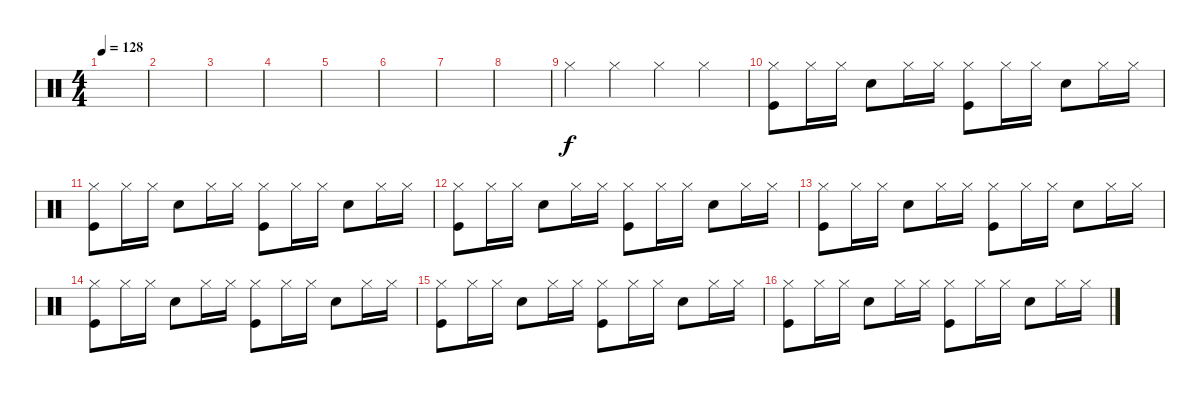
\track "" {instrument percussion}
\staff {score}
\articulation defaults
\ts (4 4)
\tempo 128
\clef neutral
\ks c
|
|
|
|
|
|
|
|
"Hi-Hat (closed)".4{dy f} "Hi-Hat (closed)".4 "Hi-Hat (closed)".4 "Hi-Hat (closed)".4 |
("Hi-Hat (closed)" "Kick (hit)").8 "Hi-Hat (closed)".16 "Hi-Hat (closed)".16 "Electric Snare (hit)".8 "Hi-Hat (closed)".16 "Hi-Hat (closed)".16 ("Hi-Hat (closed)" "Kick (hit)").8 "Hi-Hat (closed)".16 "Hi-Hat (closed)".16 "Electric Snare (hit)".8 "Hi-Hat (closed)".16 "Hi-Hat (closed)".16 |
("Hi-Hat (closed)" "Kick (hit)").8 "Hi-Hat (closed)".16 "Hi-Hat (closed)".16 "Electric Snare (hit)".8 "Hi-Hat (closed)".16 "Hi-Hat (closed)".16 ("Hi-Hat (closed)" "Kick (hit)").8 "Hi-Hat (closed)".16 "Hi-Hat (closed)".16 "Electric Snare (hit)".8 "Hi-Hat (closed)".16 "Hi-Hat (closed)".16 |
("Hi-Hat (closed)" "Kick (hit)").8 "Hi-Hat (closed)".16 "Hi-Hat (closed)".16 "Electric Snare (hit)".8 "Hi-Hat (closed)".16 "Hi-Hat (closed)".16 ("Hi-Hat (closed)" "Kick (hit)").8 "Hi-Hat (closed)".16 "Hi-Hat (closed)".16 "Electric Snare (hit)".8 "Hi-Hat (closed)".16 "Hi-Hat (closed)".16 |
("Hi-Hat (closed)" "Kick (hit)").8 "Hi-Hat (closed)".16 "Hi-Hat (closed)".16 "Electric Snare (hit)".8 "Hi-Hat (closed)".16 "Hi-Hat (closed)".16 ("Hi-Hat (closed)" "Kick (hit)").8 "Hi-Hat (closed)".16 "Hi-Hat (closed)".16 "Electric Snare (hit)".8 "Hi-Hat (closed)".16 "Hi-Hat (closed)".16 |
("Hi-Hat (closed)" "Kick (hit)").8 "Hi-Hat (closed)".16 "Hi-Hat (closed)".16 "Electric Snare (hit)".8 "Hi-Hat (closed)".16 "Hi-Hat (closed)".16 ("Hi-Hat (closed)" "Kick (hit)").8 "Hi-Hat (closed)".16 "Hi-Hat (closed)".16 "Electric Snare (hit)".8 "Hi-Hat (closed)".16 "Hi-Hat (closed)".16 |
("Hi-Hat (closed)" "Kick (hit)").8 "Hi-Hat (closed)".16 "Hi-Hat (closed)".16 "Electric Snare (hit)".8 "Hi-Hat (closed)".16 "Hi-Hat (closed)".16 ("Hi-Hat (closed)" "Kick (hit)").8 "Hi-Hat (closed)".16 "Hi-Hat (closed)".16 "Electric Snare (hit)".8 "Hi-Hat (closed)".16 "Hi-Hat (closed)".16 |
("Hi-Hat (closed)" "Kick (hit)").8 "Hi-Hat (closed)".16 "Hi-Hat (closed)".16 "Electric Snare (hit)".8 "Hi-Hat (closed)".16 "Hi-Hat (closed)".16 ("Hi-Hat (closed)" "Kick (hit)").8 "Hi-Hat (closed)".16 "Hi-Hat (closed)".16 "Electric Snare (hit)".8 "Hi-Hat (closed)".16 "Hi-Hat (closed)".16
